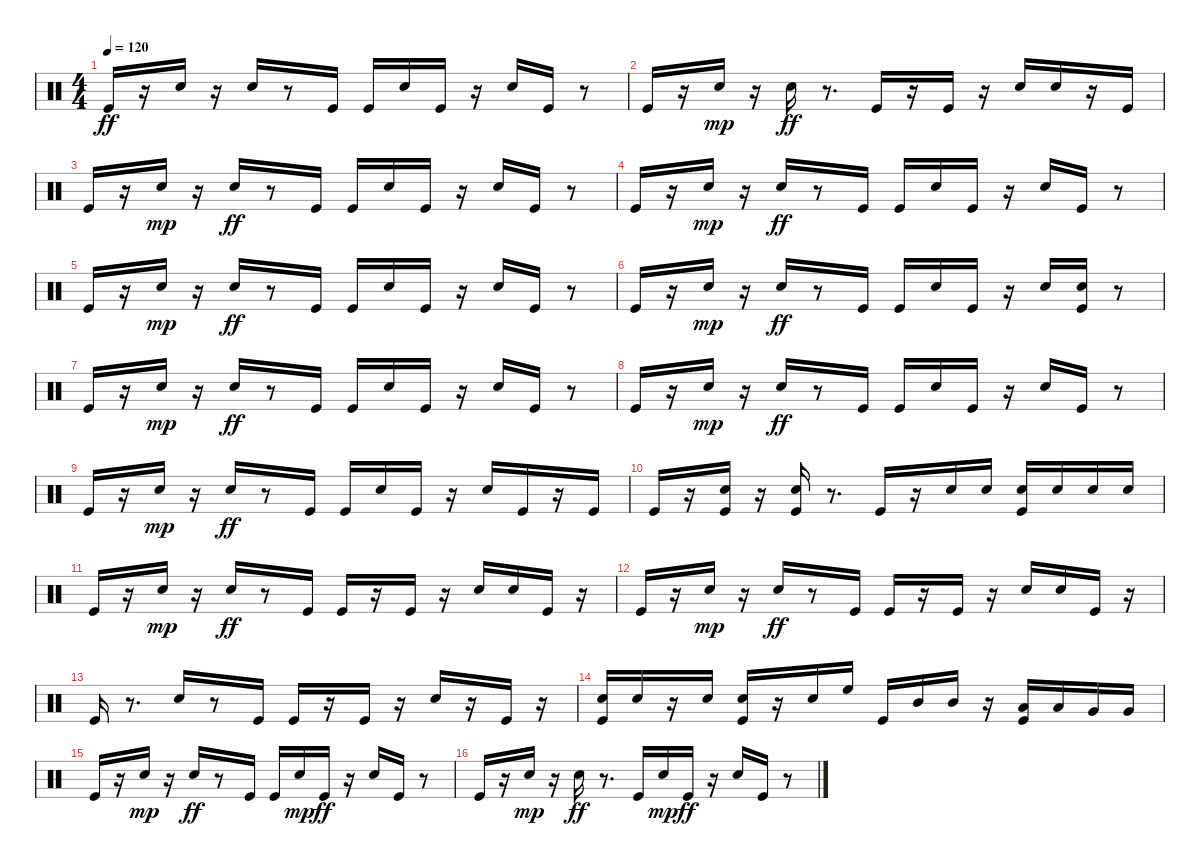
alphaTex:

\track "" {instrument percussion}
\staff {score}
\articulation defaults
\ts (4 4)
\tempo 120
\clef neutral
\ks c "Kick (hit)".16{dy ff}
r.16 "Electric Snare (hit)".16 r.16 "Electric Snare (hit)".16 r.8 "Kick (hit)".16 "Kick (hit)".16 "Electric Snare (hit)".16 "Kick (hit)".16 r.16 "Electric Snare (hit)".16 "Kick (hit)".16 r.8 |
"Kick (hit)".16 r.16 "Electric Snare (hit)".16{dy mp} r.16 "Electric Snare (hit)".16{dy ff} r.8{d} "Kick (hit)".16 r.16 "Kick (hit)".16 r.16 "Electric Snare (hit)".16 "Electric Snare (hit)".16 r.16 "Kick (hit)".16 |
"Kick (hit)".16 r.16 "Electric Snare (hit)".16{dy mp} r.16 "Electric Snare (hit)".16{dy ff} r.8 "Kick (hit)".16 "Kick (hit)".16 "Electric Snare (hit)".16 "Kick (hit)".16 r.16 "Electric Snare (hit)".16 "Kick (hit)".16 r.8 |
"Kick (hit)".16 r.16 "Electric Snare (hit)".16{dy mp} r.16 "Electric Snare (hit)".16{dy ff} r.8 "Kick (hit)".16 "Kick (hit)".16 "Electric Snare (hit)".16 "Kick (hit)".16 r.16 "Electric Snare (hit)".16 "Kick (hit)".16 r.8 |
"Kick (hit)".16 r.16 "Electric Snare (hit)".16{dy mp} r.16 "Electric Snare (hit)".16{dy ff} r.8 "Kick (hit)".16 "Kick (hit)".16 "Electric Snare (hit)".16 "Kick (hit)".16 r.16 "Electric Snare (hit)".16 "Kick (hit)".16 r.8 |
"Kick (hit)".16 r.16 "Electric Snare (hit)".16{dy mp} r.16 "Electric Snare (hit)".16{dy ff} r.8 "Kick (hit)".16 "Kick (hit)".16 "Electric Snare (hit)".16 "Kick (hit)".16 r.16 "Electric Snare (hit)".16 ("Kick (hit)" "Electric Snare (hit)").16 r.8 |
"Kick (hit)".16 r.16 "Electric Snare (hit)".16{dy mp} r.16 "Electric Snare (hit)".16{dy ff} r.8 "Kick (hit)".16 "Kick (hit)".16 "Electric Snare (hit)".16 "Kick (hit)".16 r.16 "Electric Snare (hit)".16 "Kick (hit)".16 r.8 |
"Kick (hit)".16 r.16 "Electric Snare (hit)".16{dy mp} r.16 "Electric Snare (hit)".16{dy ff} r.8 "Kick (hit)".16 "Kick (hit)".16 "Electric Snare (hit)".16 "Kick (hit)".16 r.16 "Electric Snare (hit)".16 "Kick (hit)".16 r.8 |
"Kick (hit)".16 r.16 "Electric Snare (hit)".16{dy mp} r.16 "Electric Snare (hit)".16{dy ff} r.8 "Kick (hit)".16 "Kick (hit)".16 "Electric Snare (hit)".16 "Kick (hit)".16 r.16 "Electric Snare (hit)".16 "Kick (hit)".16 r.16 "Kick (hit)".16 |
"Kick (hit)".16 r.16 ("Electric Snare (hit)" "Kick (hit)").16 r.16 ("Kick (hit)" "Electric Snare (hit)").16 r.8{d} "Kick (hit)".16 r.16 "Electric Snare (hit)".16 "Electric Snare (hit)".16 ("Electric Snare (hit)" "Kick (hit)").16 "Electric Snare (hit)".16 "Electric Snare (hit)".16 "Electric Snare (hit)".16 |
"Kick (hit)".16 r.16 "Electric Snare (hit)".16{dy mp} r.16 "Electric Snare (hit)".16{dy ff} r.8 "Kick (hit)".16 "Kick (hit)".16 r.16 "Kick (hit)".16 r.16 "Electric Snare (hit)".16 "Electric Snare (hit)".16 "Kick (hit)".16 r.16 |
"Kick (hit)".16 r.16 "Electric Snare (hit)".16{dy mp} r.16 "Electric Snare (hit)".16{dy ff} r.8 "Kick (hit)".16 "Kick (hit)".16 r.16 "Kick (hit)".16 r.16 "Electric Snare (hit)".16 "Electric Snare (hit)".16 "Kick (hit)".16 r.16 |
"Kick (hit)".16 r.8{d} "Electric Snare (hit)".16 r.8 "Kick (hit)".16 "Kick (hit)".16 r.16 "Kick (hit)".16 r.16 "Electric Snare (hit)".16 r.16 "Kick (hit)".16 r.16 |
("Electric Snare (hit)" "Kick (hit)").16 "Electric Snare (hit)".16 r.16 "Electric Snare (hit)".16 ("Electric Snare (hit)" "Kick (hit)").16 r.16 "Electric Snare (hit)".16 "High Floor Tom (hit)".16 "Kick (hit)".16 "Mid Tom (hit)".16 "Mid Tom (hit)".16 r.16 ("Low Tom (hit)" "Kick (hit)").16 "Low Tom (hit)".16 "Very Low Tom (hit)".16 "Very Low Tom (hit)".16 |
"Kick (hit)".16 r.16 "Electric Snare (hit)".16{dy mp} r.16 "Electric Snare (hit)".16{dy ff} r.8 "Kick (hit)".16 "Kick (hit)".16 "Electric Snare (hit)".16{dy mp} "Kick (hit)".16{dy ff} r.16 "Electric Snare (hit)".16 "Kick (hit)".16 r.8 |
"Kick (hit)".16 r.16 "Electric Snare (hit)".16{dy mp} r.16 "Electric Snare (hit)".16{dy ff} r.8{d} "Kick (hit)".16 "Electric Snare (hit)".16{dy mp} "Kick (hit)".16{dy ff} r.16 "Electric Snare (hit)".16 "Kick (hit)".16 r.8
